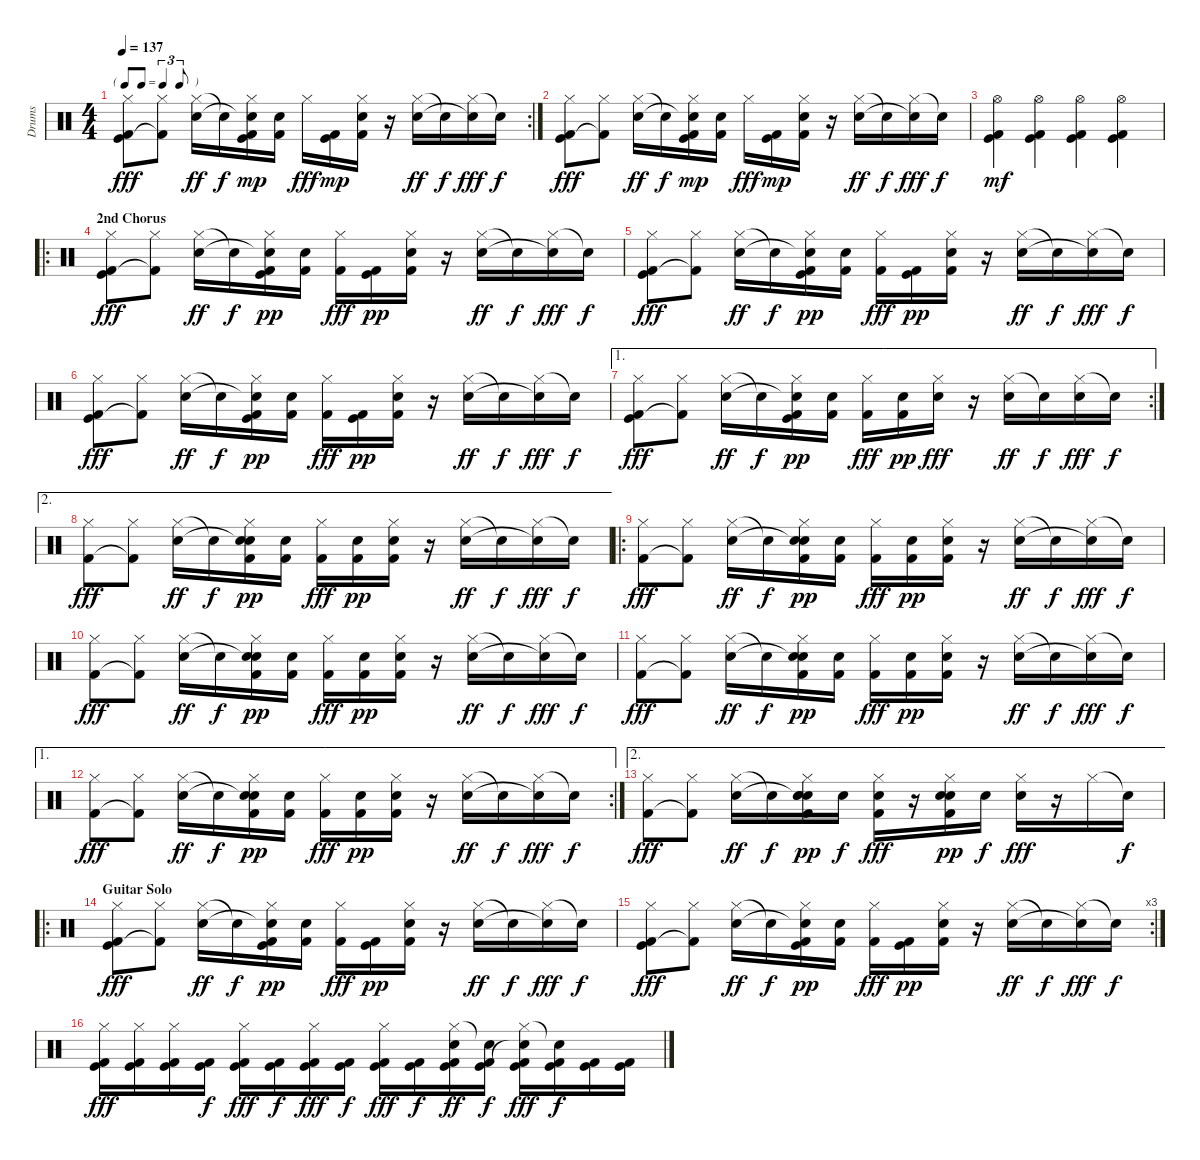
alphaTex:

\track ("Drums" "Drums") {instrument percussion}
\staff {score}
\articulation defaults
\rc 2
\ts (4 4)
\tf triplet8th
\tempo 137
\clef neutral
\ks c
("Hi-Hat (closed)" "Kick (hit)" "Kick (hit) 2").8{dy fff} ("Hi-Hat (closed)" "Kick (hit) 2"{t}).8 ("Hi-Hat (closed)" "Electric Snare (hit)").16{dy ff} "Snare (hit)"{t}.16{dy f} ("Hi-Hat (closed)" "Snare (hit)"{t} "Kick (hit)" "Kick (hit) 2").16{dy mp} ("Electric Snare (hit)" "Kick (hit) 2").16 "Hi-Hat (closed)".16{dy fff} ("Kick (hit)" "Kick (hit) 2").16{dy mp} ("Hi-Hat (closed)" "Electric Snare (hit)" "Kick (hit) 2").16 r.16 ("Hi-Hat (closed)" "Electric Snare (hit)").16{dy ff} "Snare (hit)"{t}.16{dy f} ("Hi-Hat (closed)" "Snare (hit)"{t}).16{dy fff} "Snare (hit)"{t}.16{dy f} |
("Hi-Hat (closed)" "Kick (hit)" "Kick (hit) 2").8{dy fff} ("Hi-Hat (closed)" "Kick (hit) 2"{t}).8 ("Hi-Hat (closed)" "Electric Snare (hit)").16{dy ff} "Snare (hit)"{t}.16{dy f} ("Hi-Hat (closed)" "Snare (hit)"{t} "Kick (hit)" "Kick (hit) 2").16{dy mp} ("Electric Snare (hit)" "Kick (hit) 2").16 "Hi-Hat (closed)".16{dy fff} ("Kick (hit)" "Kick (hit) 2").16{dy mp} ("Hi-Hat (closed)" "Electric Snare (hit)" "Kick (hit) 2").16 r.16 ("Hi-Hat (closed)" "Electric Snare (hit)").16{dy ff} "Snare (hit)"{t}.16{dy f} ("Hi-Hat (closed)" "Snare (hit)"{t}).16{dy fff} "Snare (hit)"{t}.16{dy f} |
("Hi-Hat (open)" "Kick (hit)" "Kick (hit) 2").4{dy mf} ("Hi-Hat (open)" "Kick (hit)" "Kick (hit) 2").4 ("Hi-Hat (open)" "Kick (hit)" "Kick (hit) 2").4 ("Hi-Hat (open)" "Kick (hit)" "Kick (hit) 2").4 |
\ro
\section ("" "2nd Chorus")
("Hi-Hat (closed)" "Kick (hit)" "Kick (hit) 2").8{dy fff} ("Hi-Hat (closed)" "Kick (hit) 2"{t}).8 ("Hi-Hat (closed)" "Electric Snare (hit)").16{dy ff} "Snare (hit)"{t}.16{dy f} ("Hi-Hat (closed)" "Snare (hit)"{t} "Kick (hit)" "Kick (hit) 2").16{dy pp} ("Electric Snare (hit)" "Kick (hit) 2").16 ("Hi-Hat (closed)" "Kick (hit) 2").16{dy fff} ("Kick (hit)" "Kick (hit) 2").16{dy pp} ("Hi-Hat (closed)" "Electric Snare (hit)" "Kick (hit) 2").16 r.16 ("Hi-Hat (closed)" "Electric Snare (hit)").16{dy ff} "Snare (hit)"{t}.16{dy f} ("Hi-Hat (closed)" "Snare (hit)"{t}).16{dy fff} "Snare (hit)"{t}.16{dy f} |
("Hi-Hat (closed)" "Kick (hit)" "Kick (hit) 2").8{dy fff} ("Hi-Hat (closed)" "Kick (hit) 2"{t}).8 ("Hi-Hat (closed)" "Electric Snare (hit)").16{dy ff} "Snare (hit)"{t}.16{dy f} ("Hi-Hat (closed)" "Snare (hit)"{t} "Kick (hit)" "Kick (hit) 2").16{dy pp} ("Electric Snare (hit)" "Kick (hit) 2").16 ("Hi-Hat (closed)" "Kick (hit) 2").16{dy fff} ("Kick (hit)" "Kick (hit) 2").16{dy pp} ("Hi-Hat (closed)" "Electric Snare (hit)" "Kick (hit) 2").16 r.16 ("Hi-Hat (closed)" "Electric Snare (hit)").16{dy ff} "Snare (hit)"{t}.16{dy f} ("Hi-Hat (closed)" "Snare (hit)"{t}).16{dy fff} "Snare (hit)"{t}.16{dy f} |
("Hi-Hat (closed)" "Kick (hit)" "Kick (hit) 2").8{dy fff} ("Hi-Hat (closed)" "Kick (hit) 2"{t}).8 ("Hi-Hat (closed)" "Electric Snare (hit)").16{dy ff} "Snare (hit)"{t}.16{dy f} ("Hi-Hat (closed)" "Snare (hit)"{t} "Kick (hit)" "Kick (hit) 2").16{dy pp} ("Electric Snare (hit)" "Kick (hit) 2").16 ("Hi-Hat (closed)" "Kick (hit) 2").16{dy fff} ("Kick (hit)" "Kick (hit) 2").16{dy pp} ("Hi-Hat (closed)" "Electric Snare (hit)" "Kick (hit) 2").16 r.16 ("Hi-Hat (closed)" "Electric Snare (hit)").16{dy ff} "Snare (hit)"{t}.16{dy f} ("Hi-Hat (closed)" "Snare (hit)"{t}).16{dy fff} "Snare (hit)"{t}.16{dy f} |
\ae 1
\rc 2
("Hi-Hat (closed)" "Kick (hit)" "Kick (hit) 2").8{dy fff} ("Hi-Hat (closed)" "Kick (hit) 2"{t}).8 ("Hi-Hat (closed)" "Electric Snare (hit)").16{dy ff} "Snare (hit)"{t}.16{dy f} ("Hi-Hat (closed)" "Snare (hit)"{t} "Kick (hit)" "Kick (hit) 2").16{dy pp} ("Electric Snare (hit)" "Kick (hit) 2").16 ("Hi-Hat (closed)" "Kick (hit) 2").16{dy fff} ("Electric Snare (hit)" "Kick (hit) 2").16{dy pp} ("Hi-Hat (closed)" "Electric Snare (hit)").16{dy fff} r.16 ("Hi-Hat (closed)" "Electric Snare (hit)").16{dy ff} "Snare (hit)"{t}.16{dy f} ("Hi-Hat (closed)" "Electric Snare (hit)").16{dy fff} "Snare (hit)"{t}.16{dy f} |
\ae 2
("Hi-Hat (closed)" "Kick (hit) 2").8{dy fff} ("Hi-Hat (closed)" "Kick (hit) 2"{t}).8 ("Hi-Hat (closed)" "Electric Snare (hit)").16{dy ff} "Snare (hit)"{t}.16{dy f} ("Hi-Hat (closed)" "Snare (hit)"{t} "Electric Snare (hit)" "Kick (hit) 2").16{dy pp} ("Electric Snare (hit)" "Kick (hit) 2").16 ("Hi-Hat (closed)" "Kick (hit) 2").16{dy fff} ("Electric Snare (hit)" "Kick (hit) 2").16{dy pp} ("Hi-Hat (closed)" "Electric Snare (hit)" "Kick (hit) 2").16 r.16 ("Hi-Hat (closed)" "Electric Snare (hit)").16{dy ff} "Snare (hit)"{t}.16{dy f} ("Hi-Hat (closed)" "Snare (hit)"{t}).16{dy fff} "Snare (hit)"{t}.16{dy f} |
\ro
("Hi-Hat (closed)" "Kick (hit) 2").8{dy fff} ("Hi-Hat (closed)" "Kick (hit) 2"{t}).8 ("Hi-Hat (closed)" "Electric Snare (hit)").16{dy ff} "Snare (hit)"{t}.16{dy f} ("Hi-Hat (closed)" "Snare (hit)"{t} "Electric Snare (hit)" "Kick (hit) 2").16{dy pp} ("Electric Snare (hit)" "Kick (hit) 2").16 ("Hi-Hat (closed)" "Kick (hit) 2").16{dy fff} ("Electric Snare (hit)" "Kick (hit) 2").16{dy pp} ("Hi-Hat (closed)" "Electric Snare (hit)" "Kick (hit) 2").16 r.16 ("Hi-Hat (closed)" "Electric Snare (hit)").16{dy ff} "Snare (hit)"{t}.16{dy f} ("Hi-Hat (closed)" "Snare (hit)"{t}).16{dy fff} "Snare (hit)"{t}.16{dy f} |
("Hi-Hat (closed)" "Kick (hit) 2").8{dy fff} ("Hi-Hat (closed)" "Kick (hit) 2"{t}).8 ("Hi-Hat (closed)" "Electric Snare (hit)").16{dy ff} "Snare (hit)"{t}.16{dy f} ("Hi-Hat (closed)" "Snare (hit)"{t} "Electric Snare (hit)" "Kick (hit) 2").16{dy pp} ("Electric Snare (hit)" "Kick (hit) 2").16 ("Hi-Hat (closed)" "Kick (hit) 2").16{dy fff} ("Electric Snare (hit)" "Kick (hit) 2").16{dy pp} ("Hi-Hat (closed)" "Electric Snare (hit)" "Kick (hit) 2").16 r.16 ("Hi-Hat (closed)" "Electric Snare (hit)").16{dy ff} "Snare (hit)"{t}.16{dy f} ("Hi-Hat (closed)" "Snare (hit)"{t}).16{dy fff} "Snare (hit)"{t}.16{dy f} |
("Hi-Hat (closed)" "Kick (hit) 2").8{dy fff} ("Hi-Hat (closed)" "Kick (hit) 2"{t}).8 ("Hi-Hat (closed)" "Electric Snare (hit)").16{dy ff} "Snare (hit)"{t}.16{dy f} ("Hi-Hat (closed)" "Snare (hit)"{t} "Electric Snare (hit)" "Kick (hit) 2").16{dy pp} ("Electric Snare (hit)" "Kick (hit) 2").16 ("Hi-Hat (closed)" "Kick (hit) 2").16{dy fff} ("Electric Snare (hit)" "Kick (hit) 2").16{dy pp} ("Hi-Hat (closed)" "Electric Snare (hit)" "Kick (hit) 2").16 r.16 ("Hi-Hat (closed)" "Electric Snare (hit)").16{dy ff} "Snare (hit)"{t}.16{dy f} ("Hi-Hat (closed)" "Snare (hit)"{t}).16{dy fff} "Snare (hit)"{t}.16{dy f} |
\ae 1
\rc 2
("Hi-Hat (closed)" "Kick (hit) 2").8{dy fff} ("Hi-Hat (closed)" "Kick (hit) 2"{t}).8 ("Hi-Hat (closed)" "Electric Snare (hit)").16{dy ff} "Snare (hit)"{t}.16{dy f} ("Hi-Hat (closed)" "Snare (hit)"{t} "Electric Snare (hit)" "Kick (hit) 2").16{dy pp} ("Electric Snare (hit)" "Kick (hit) 2").16 ("Hi-Hat (closed)" "Kick (hit) 2").16{dy fff} ("Electric Snare (hit)" "Kick (hit) 2").16{dy pp} ("Hi-Hat (closed)" "Electric Snare (hit)" "Kick (hit) 2").16 r.16 ("Hi-Hat (closed)" "Electric Snare (hit)").16{dy ff} "Snare (hit)"{t}.16{dy f} ("Hi-Hat (closed)" "Snare (hit)"{t}).16{dy fff} "Snare (hit)"{t}.16{dy f} |
\ae 2
("Hi-Hat (closed)" "Kick (hit) 2").8{dy fff} ("Hi-Hat (closed)" "Kick (hit) 2"{t}).8 ("Hi-Hat (closed)" "Electric Snare (hit)").16{dy ff} "Snare (hit)"{t}.16{dy f} ("Hi-Hat (closed)" "Snare (hit)"{t} "Electric Snare (hit)" "Electric Snare (hit)" "Kick (hit) 2").16{dy pp} "Electric Snare (hit)".16{dy f} ("Hi-Hat (closed)" "Electric Snare (hit)" "Kick (hit) 2").16{dy fff} r.16 ("Hi-Hat (closed)" "Electric Snare (hit)" "Electric Snare (hit)" "Kick (hit) 2").16{dy pp} "Electric Snare (hit)".16{dy f} ("Hi-Hat (closed)" "Electric Snare (hit)").16{dy fff} r.16 "Hi-Hat (closed)".16 "Snare (hit)"{t}.16{dy f} |
\ro
\section ("" "Guitar Solo")
("Hi-Hat (closed)" "Kick (hit)" "Kick (hit) 2").8{dy fff} ("Hi-Hat (closed)" "Kick (hit) 2"{t}).8 ("Hi-Hat (closed)" "Electric Snare (hit)").16{dy ff} "Snare (hit)"{t}.16{dy f} ("Hi-Hat (closed)" "Snare (hit)"{t} "Kick (hit)" "Kick (hit) 2").16{dy pp} ("Electric Snare (hit)" "Kick (hit) 2").16 ("Hi-Hat (closed)" "Kick (hit) 2").16{dy fff} ("Kick (hit)" "Kick (hit) 2").16{dy pp} ("Hi-Hat (closed)" "Electric Snare (hit)" "Kick (hit) 2").16 r.16 ("Hi-Hat (closed)" "Electric Snare (hit)").16{dy ff} "Snare (hit)"{t}.16{dy f} ("Hi-Hat (closed)" "Snare (hit)"{t}).16{dy fff} "Snare (hit)"{t}.16{dy f} |
\rc 3
("Hi-Hat (closed)" "Kick (hit)" "Kick (hit) 2").8{dy fff} ("Hi-Hat (closed)" "Kick (hit) 2"{t}).8 ("Hi-Hat (closed)" "Electric Snare (hit)").16{dy ff} "Snare (hit)"{t}.16{dy f} ("Hi-Hat (closed)" "Snare (hit)"{t} "Kick (hit)" "Kick (hit) 2").16{dy pp} ("Electric Snare (hit)" "Kick (hit) 2").16 ("Hi-Hat (closed)" "Kick (hit) 2").16{dy fff} ("Kick (hit)" "Kick (hit) 2").16{dy pp} ("Hi-Hat (closed)" "Electric Snare (hit)" "Kick (hit) 2").16 r.16 ("Hi-Hat (closed)" "Electric Snare (hit)").16{dy ff} "Snare (hit)"{t}.16{dy f} ("Hi-Hat (closed)" "Snare (hit)"{t}).16{dy fff} "Snare (hit)"{t}.16{dy f} |
("Hi-Hat (closed)" "Kick (hit)" "Kick (hit) 2").16{dy fff} ("Hi-Hat (closed)" "Kick (hit)" "Kick (hit) 2").16 ("Hi-Hat (closed)" "Kick (hit)" "Kick (hit) 2").16 ("Kick (hit)" "Kick (hit) 2").16{dy f} ("Hi-Hat (closed)" "Kick (hit)" "Kick (hit) 2").16{dy fff} ("Kick (hit)" "Kick (hit) 2").16{dy f} ("Hi-Hat (closed)" "Kick (hit)" "Kick (hit) 2").16{dy fff} ("Kick (hit)" "Kick (hit) 2").16{dy f} ("Hi-Hat (closed)" "Kick (hit)" "Kick (hit) 2").16{dy fff} ("Kick (hit)" "Kick (hit) 2").16{dy f} ("Hi-Hat (closed)" "Electric Snare (hit)" "Kick (hit)" "Kick (hit) 2").16{dy ff} ("Snare (hit)"{t} "Kick (hit)" "Kick (hit) 2").16{dy f} ("Hi-Hat (closed)" "Snare (hit)"{t} "Kick (hit)" "Kick (hit) 2").16{dy fff} ("Snare (hit)"{t} "Kick (hit)" "Kick (hit) 2").16{dy f} ("Kick (hit)" "Kick (hit) 2").16 ("Kick (hit)" "Kick (hit) 2").16
